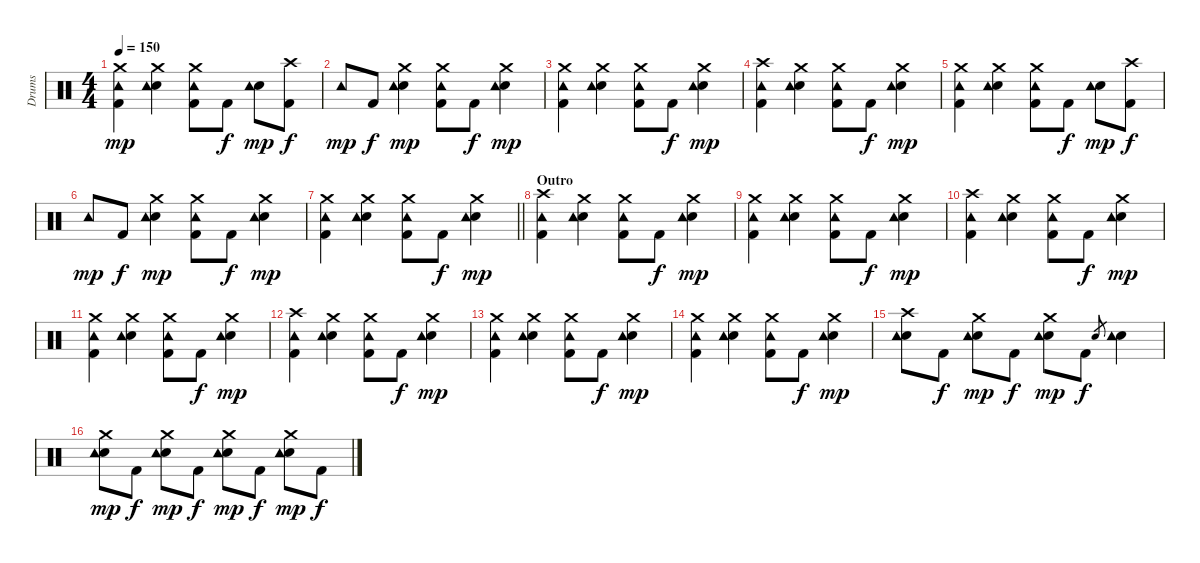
\track ("Drums" "Drums") {instrument percussion}
\staff {score}
\articulation defaults
\ts (4 4)
\tempo 150
\clef neutral
\ks c
("Crash medium (hit)" "Kick (hit) 2" "Tambourine (hit)").4{dy mp} ("Crash medium (hit)" "Snare (hit) 2" "Tambourine (hit)").4 ("Crash medium (hit)" "Kick (hit) 2" "Tambourine (hit)").8 "Kick (hit) 2".8{dy f} ("Snare (hit) 2" "Tambourine (hit)").8{dy mp} ("Crash high (hit)" "Kick (hit) 2").8{dy f} |
"Tambourine (hit)".8{dy mp} "Kick (hit) 2".8{dy f} ("Crash medium (hit)" "Snare (hit) 2" "Tambourine (hit)").4{dy mp} ("Crash medium (hit)" "Kick (hit) 2" "Tambourine (hit)").8 "Kick (hit) 2".8{dy f} ("Crash medium (hit)" "Snare (hit) 2" "Tambourine (hit)").4{dy mp} |
("Crash medium (hit)" "Kick (hit) 2" "Tambourine (hit)").4 ("Crash medium (hit)" "Snare (hit) 2" "Tambourine (hit)").4 ("Crash medium (hit)" "Kick (hit) 2" "Tambourine (hit)").8 "Kick (hit) 2".8{dy f} ("Crash medium (hit)" "Snare (hit) 2" "Tambourine (hit)").4{dy mp} |
("Crash high (hit)" "Kick (hit) 2" "Tambourine (hit)").4 ("Crash medium (hit)" "Snare (hit) 2" "Tambourine (hit)").4 ("Crash medium (hit)" "Kick (hit) 2" "Tambourine (hit)").8 "Kick (hit) 2".8{dy f} ("Crash medium (hit)" "Snare (hit) 2" "Tambourine (hit)").4{dy mp} |
("Crash medium (hit)" "Kick (hit) 2" "Tambourine (hit)").4 ("Crash medium (hit)" "Snare (hit) 2" "Tambourine (hit)").4 ("Crash medium (hit)" "Kick (hit) 2" "Tambourine (hit)").8 "Kick (hit) 2".8{dy f} ("Snare (hit) 2" "Tambourine (hit)").8{dy mp} ("Crash high (hit)" "Kick (hit) 2").8{dy f} |
"Tambourine (hit)".8{dy mp} "Kick (hit) 2".8{dy f} ("Crash medium (hit)" "Snare (hit) 2" "Tambourine (hit)").4{dy mp} ("Crash medium (hit)" "Kick (hit) 2" "Tambourine (hit)").8 "Kick (hit) 2".8{dy f} ("Crash medium (hit)" "Snare (hit) 2" "Tambourine (hit)").4{dy mp} |
\barLineRight lightlight
("Crash medium (hit)" "Kick (hit) 2" "Tambourine (hit)").4 ("Crash medium (hit)" "Snare (hit) 2" "Tambourine (hit)").4 ("Crash medium (hit)" "Kick (hit) 2" "Tambourine (hit)").8 "Kick (hit) 2".8{dy f} ("Crash medium (hit)" "Snare (hit) 2" "Tambourine (hit)").4{dy mp} |
\section ("" "Outro")
("Crash high (hit)" "Kick (hit) 2" "Tambourine (hit)").4 ("Crash medium (hit)" "Snare (hit) 2" "Tambourine (hit)").4 ("Crash medium (hit)" "Kick (hit) 2" "Tambourine (hit)").8 "Kick (hit) 2".8{dy f} ("Crash medium (hit)" "Snare (hit) 2" "Tambourine (hit)").4{dy mp} |
("Crash medium (hit)" "Kick (hit) 2" "Tambourine (hit)").4 ("Crash medium (hit)" "Snare (hit) 2" "Tambourine (hit)").4 ("Crash medium (hit)" "Kick (hit) 2" "Tambourine (hit)").8 "Kick (hit) 2".8{dy f} ("Crash medium (hit)" "Snare (hit) 2" "Tambourine (hit)").4{dy mp} |
("Crash high (hit)" "Kick (hit) 2" "Tambourine (hit)").4 ("Crash medium (hit)" "Snare (hit) 2" "Tambourine (hit)").4 ("Crash medium (hit)" "Kick (hit) 2" "Tambourine (hit)").8 "Kick (hit) 2".8{dy f} ("Crash medium (hit)" "Snare (hit) 2" "Tambourine (hit)").4{dy mp} |
("Crash medium (hit)" "Kick (hit) 2" "Tambourine (hit)").4 ("Crash medium (hit)" "Snare (hit) 2" "Tambourine (hit)").4 ("Crash medium (hit)" "Kick (hit) 2" "Tambourine (hit)").8 "Kick (hit) 2".8{dy f} ("Crash medium (hit)" "Snare (hit) 2" "Tambourine (hit)").4{dy mp} |
("Crash high (hit)" "Kick (hit) 2" "Tambourine (hit)").4 ("Crash medium (hit)" "Snare (hit) 2" "Tambourine (hit)").4 ("Crash medium (hit)" "Kick (hit) 2" "Tambourine (hit)").8 "Kick (hit) 2".8{dy f} ("Crash medium (hit)" "Snare (hit) 2" "Tambourine (hit)").4{dy mp} |
("Crash medium (hit)" "Kick (hit) 2" "Tambourine (hit)").4 ("Crash medium (hit)" "Snare (hit) 2" "Tambourine (hit)").4 ("Crash medium (hit)" "Kick (hit) 2" "Tambourine (hit)").8 "Kick (hit) 2".8{dy f} ("Crash medium (hit)" "Snare (hit) 2" "Tambourine (hit)").4{dy mp} |
("Crash medium (hit)" "Kick (hit) 2" "Tambourine (hit)").4 ("Crash medium (hit)" "Snare (hit) 2" "Tambourine (hit)").4 ("Crash medium (hit)" "Kick (hit) 2" "Tambourine (hit)").8 "Kick (hit) 2".8{dy f} ("Crash medium (hit)" "Snare (hit) 2" "Tambourine (hit)").4{dy mp} |
("Crash high (hit)" "Snare (hit) 2" "Tambourine (hit)").8 "Kick (hit) 2".8{dy f} ("Crash medium (hit)" "Snare (hit) 2" "Tambourine (hit)").8{dy mp} "Kick (hit) 2".8{dy f} ("Crash medium (hit)" "Snare (hit) 2" "Tambourine (hit)").8{dy mp} "Kick (hit) 2".8{dy f} "Snare (hit) 2".8{gr} ("Snare (hit) 2" "Tambourine (hit)").4 |
("Crash medium (hit)" "Snare (hit) 2" "Tambourine (hit)").8{dy mp} "Kick (hit) 2".8{dy f} ("Crash medium (hit)" "Snare (hit) 2" "Tambourine (hit)").8{dy mp} "Kick (hit) 2".8{dy f} ("Crash medium (hit)" "Snare (hit) 2" "Tambourine (hit)").8{dy mp} "Kick (hit) 2".8{dy f} ("Crash medium (hit)" "Snare (hit) 2" "Tambourine (hit)").8{dy mp} "Kick (hit) 2".8{dy f}
